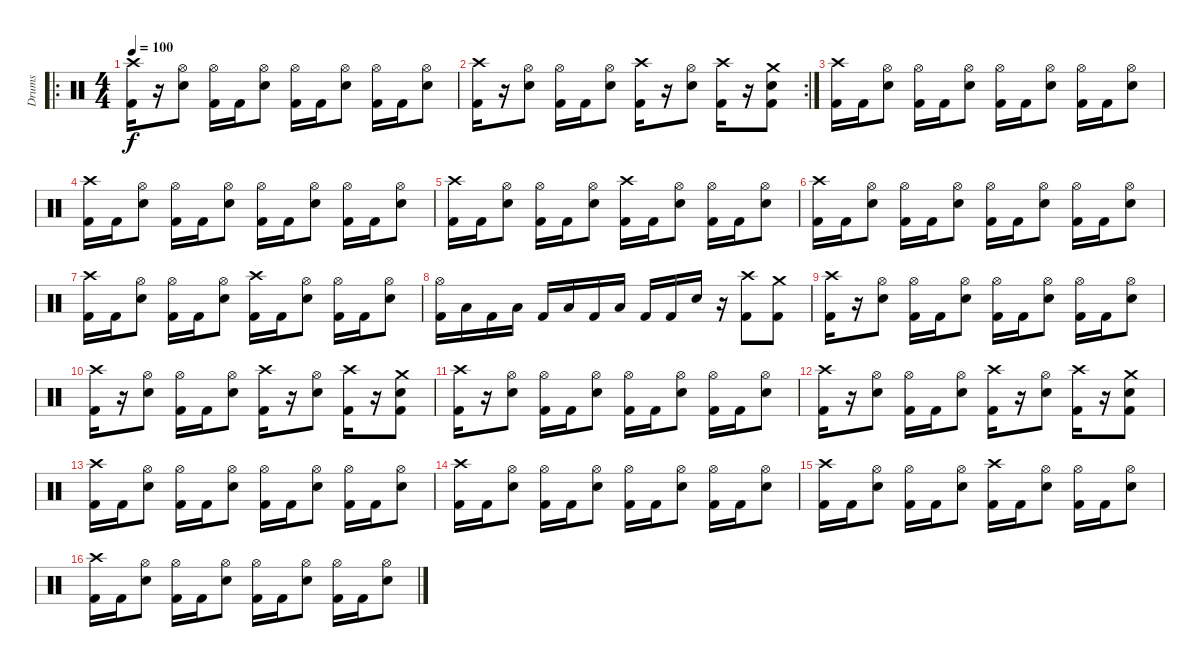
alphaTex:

\track ("Drums" "Drums") {instrument percussion}
\staff {score}
\articulation defaults
\ro
\ts (4 4)
\tempo 100
\clef neutral
\ks c
("Crash high (hit)" "Kick (hit) 2").16{dy f} r.16 ("Hi-Hat (open)" "Electric Snare (hit)").8 ("Hi-Hat (open)" "Kick (hit) 2").16 "Kick (hit) 2".16 ("Hi-Hat (open)" "Electric Snare (hit)").8 ("Hi-Hat (open)" "Kick (hit) 2").16 "Kick (hit) 2".16 ("Hi-Hat (open)" "Electric Snare (hit)").8 ("Hi-Hat (open)" "Kick (hit) 2").16 "Kick (hit) 2".16 ("Hi-Hat (open)" "Electric Snare (hit)").8 |
\rc 2
("Crash high (hit)" "Kick (hit) 2").16 r.16 ("Hi-Hat (open)" "Electric Snare (hit)").8 ("Hi-Hat (open)" "Kick (hit) 2").16 "Kick (hit) 2".16 ("Hi-Hat (open)" "Electric Snare (hit)").8 ("Crash high (hit)" "Kick (hit) 2").16 r.16 ("Hi-Hat (open)" "Electric Snare (hit)").8 ("Crash high (hit)" "Kick (hit) 2").16 r.16 ("Crash medium (hit)" "Electric Snare (hit)" "Kick (hit) 2").8 |
("Crash high (hit)" "Kick (hit) 2").16 "Kick (hit) 2".16 ("Hi-Hat (open)" "Electric Snare (hit)").8 ("Hi-Hat (open)" "Kick (hit) 2").16 "Kick (hit) 2".16 ("Hi-Hat (open)" "Electric Snare (hit)").8 ("Hi-Hat (open)" "Kick (hit) 2").16 "Kick (hit) 2".16 ("Hi-Hat (open)" "Electric Snare (hit)").8 ("Hi-Hat (open)" "Kick (hit) 2").16 "Kick (hit) 2".16 ("Hi-Hat (open)" "Electric Snare (hit)").8 |
("Crash high (hit)" "Kick (hit) 2").16 "Kick (hit) 2".16 ("Hi-Hat (open)" "Electric Snare (hit)").8 ("Hi-Hat (open)" "Kick (hit) 2").16 "Kick (hit) 2".16 ("Hi-Hat (open)" "Electric Snare (hit)").8 ("Hi-Hat (open)" "Kick (hit) 2").16 "Kick (hit) 2".16 ("Hi-Hat (open)" "Electric Snare (hit)").8 ("Hi-Hat (open)" "Kick (hit) 2").16 "Kick (hit) 2".16 ("Hi-Hat (open)" "Electric Snare (hit)").8 |
("Crash high (hit)" "Kick (hit) 2").16 "Kick (hit) 2".16 ("Hi-Hat (open)" "Electric Snare (hit)").8 ("Hi-Hat (open)" "Kick (hit) 2").16 "Kick (hit) 2".16 ("Hi-Hat (open)" "Electric Snare (hit)").8 ("Crash high (hit)" "Kick (hit) 2").16 "Kick (hit) 2".16 ("Hi-Hat (open)" "Electric Snare (hit)").8 ("Hi-Hat (open)" "Kick (hit) 2").16 "Kick (hit) 2".16 ("Hi-Hat (open)" "Electric Snare (hit)").8 |
("Crash high (hit)" "Kick (hit) 2").16 "Kick (hit) 2".16 ("Hi-Hat (open)" "Electric Snare (hit)").8 ("Hi-Hat (open)" "Kick (hit) 2").16 "Kick (hit) 2".16 ("Hi-Hat (open)" "Electric Snare (hit)").8 ("Hi-Hat (open)" "Kick (hit) 2").16 "Kick (hit) 2".16 ("Hi-Hat (open)" "Electric Snare (hit)").8 ("Hi-Hat (open)" "Kick (hit) 2").16 "Kick (hit) 2".16 ("Hi-Hat (open)" "Electric Snare (hit)").8 |
("Crash high (hit)" "Kick (hit) 2").16 "Kick (hit) 2".16 ("Hi-Hat (open)" "Electric Snare (hit)").8 ("Hi-Hat (open)" "Kick (hit) 2").16 "Kick (hit) 2".16 ("Hi-Hat (open)" "Electric Snare (hit)").8 ("Crash high (hit)" "Kick (hit) 2").16 "Kick (hit) 2".16 ("Hi-Hat (open)" "Electric Snare (hit)").8 ("Hi-Hat (open)" "Kick (hit) 2").16 "Kick (hit) 2".16 ("Hi-Hat (open)" "Electric Snare (hit)").8 |
("Hi-Hat (open)" "Kick (hit) 2").16 "Low Tom (hit)".16 "Kick (hit) 2".16 "Low Tom (hit)".16 "Kick (hit) 2".16 "Low Tom (hit)".16 "Kick (hit) 2".16 "Low Tom (hit)".16 "Kick (hit) 2".16 "Kick (hit) 2".16 "Electric Snare (hit)".16 r.16 ("Crash high (hit)" "Kick (hit) 2").8 ("Crash medium (hit)" "Kick (hit) 2").8 |
("Crash high (hit)" "Kick (hit) 2").16 r.16 ("Hi-Hat (open)" "Electric Snare (hit)").8 ("Hi-Hat (open)" "Kick (hit) 2").16 "Kick (hit) 2".16 ("Hi-Hat (open)" "Electric Snare (hit)").8 ("Hi-Hat (open)" "Kick (hit) 2").16 "Kick (hit) 2".16 ("Hi-Hat (open)" "Electric Snare (hit)").8 ("Hi-Hat (open)" "Kick (hit) 2").16 "Kick (hit) 2".16 ("Hi-Hat (open)" "Electric Snare (hit)").8 |
("Crash high (hit)" "Kick (hit) 2").16 r.16 ("Hi-Hat (open)" "Electric Snare (hit)").8 ("Hi-Hat (open)" "Kick (hit) 2").16 "Kick (hit) 2".16 ("Hi-Hat (open)" "Electric Snare (hit)").8 ("Crash high (hit)" "Kick (hit) 2").16 r.16 ("Hi-Hat (open)" "Electric Snare (hit)").8 ("Crash high (hit)" "Kick (hit) 2").16 r.16 ("Crash medium (hit)" "Electric Snare (hit)" "Kick (hit) 2").8 |
("Crash high (hit)" "Kick (hit) 2").16 r.16 ("Hi-Hat (open)" "Electric Snare (hit)").8 ("Hi-Hat (open)" "Kick (hit) 2").16 "Kick (hit) 2".16 ("Hi-Hat (open)" "Electric Snare (hit)").8 ("Hi-Hat (open)" "Kick (hit) 2").16 "Kick (hit) 2".16 ("Hi-Hat (open)" "Electric Snare (hit)").8 ("Hi-Hat (open)" "Kick (hit) 2").16 "Kick (hit) 2".16 ("Hi-Hat (open)" "Electric Snare (hit)").8 |
("Crash high (hit)" "Kick (hit) 2").16 r.16 ("Hi-Hat (open)" "Electric Snare (hit)").8 ("Hi-Hat (open)" "Kick (hit) 2").16 "Kick (hit) 2".16 ("Hi-Hat (open)" "Electric Snare (hit)").8 ("Crash high (hit)" "Kick (hit) 2").16 r.16 ("Hi-Hat (open)" "Electric Snare (hit)").8 ("Crash high (hit)" "Kick (hit) 2").16 r.16 ("Crash medium (hit)" "Electric Snare (hit)" "Kick (hit) 2").8 |
("Crash high (hit)" "Kick (hit) 2").16 "Kick (hit) 2".16 ("Hi-Hat (open)" "Electric Snare (hit)").8 ("Hi-Hat (open)" "Kick (hit) 2").16 "Kick (hit) 2".16 ("Hi-Hat (open)" "Electric Snare (hit)").8 ("Hi-Hat (open)" "Kick (hit) 2").16 "Kick (hit) 2".16 ("Hi-Hat (open)" "Electric Snare (hit)").8 ("Hi-Hat (open)" "Kick (hit) 2").16 "Kick (hit) 2".16 ("Hi-Hat (open)" "Electric Snare (hit)").8 |
("Crash high (hit)" "Kick (hit) 2").16 "Kick (hit) 2".16 ("Hi-Hat (open)" "Electric Snare (hit)").8 ("Hi-Hat (open)" "Kick (hit) 2").16 "Kick (hit) 2".16 ("Hi-Hat (open)" "Electric Snare (hit)").8 ("Hi-Hat (open)" "Kick (hit) 2").16 "Kick (hit) 2".16 ("Hi-Hat (open)" "Electric Snare (hit)").8 ("Hi-Hat (open)" "Kick (hit) 2").16 "Kick (hit) 2".16 ("Hi-Hat (open)" "Electric Snare (hit)").8 |
("Crash high (hit)" "Kick (hit) 2").16 "Kick (hit) 2".16 ("Hi-Hat (open)" "Electric Snare (hit)").8 ("Hi-Hat (open)" "Kick (hit) 2").16 "Kick (hit) 2".16 ("Hi-Hat (open)" "Electric Snare (hit)").8 ("Crash high (hit)" "Kick (hit) 2").16 "Kick (hit) 2".16 ("Hi-Hat (open)" "Electric Snare (hit)").8 ("Hi-Hat (open)" "Kick (hit) 2").16 "Kick (hit) 2".16 ("Hi-Hat (open)" "Electric Snare (hit)").8 |
("Crash high (hit)" "Kick (hit) 2").16 "Kick (hit) 2".16 ("Hi-Hat (open)" "Electric Snare (hit)").8 ("Hi-Hat (open)" "Kick (hit) 2").16 "Kick (hit) 2".16 ("Hi-Hat (open)" "Electric Snare (hit)").8 ("Hi-Hat (open)" "Kick (hit) 2").16 "Kick (hit) 2".16 ("Hi-Hat (open)" "Electric Snare (hit)").8 ("Hi-Hat (open)" "Kick (hit) 2").16 "Kick (hit) 2".16 ("Hi-Hat (open)" "Electric Snare (hit)").8
